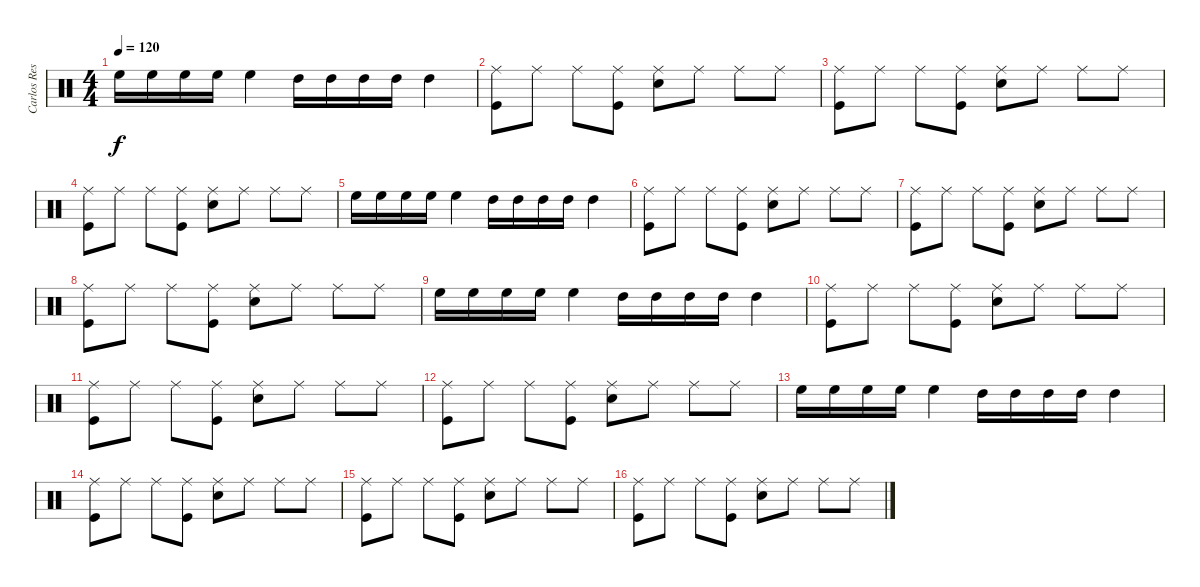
\track ("Carlos Restrepo" "Carlos Res") {instrument percussion}
\staff {score}
\articulation defaults
\ts (4 4)
\tempo 120
\clef neutral
\ks c "High Floor Tom (hit)".16{dy f} "High Floor Tom (hit)".16 "High Floor Tom (hit)".16 "High Floor Tom (hit)".16 "High Floor Tom (hit)".4 "High Tom (hit)".16 "High Tom (hit)".16 "High Tom (hit)".16 "High Tom (hit)".16 "High Tom (hit)".4
|
("Ride (middle)" "Kick (hit)").8 "Ride (middle)".8 "Ride (middle)".8 ("Ride (middle)" "Kick (hit)").8 ("Ride (middle)" "Snare (hit) 2").8 "Ride (middle)".8 "Ride (middle)".8 "Ride (middle)".8 |
("Ride (middle)" "Kick (hit)").8 "Ride (middle)".8 "Ride (middle)".8 ("Ride (middle)" "Kick (hit)").8 ("Ride (middle)" "Snare (hit) 2").8 "Ride (middle)".8 "Ride (middle)".8 "Ride (middle)".8 |
("Ride (middle)" "Kick (hit)").8 "Ride (middle)".8 "Ride (middle)".8 ("Ride (middle)" "Kick (hit)").8 ("Ride (middle)" "Snare (hit) 2").8 "Ride (middle)".8 "Ride (middle)".8 "Ride (middle)".8 |
"High Floor Tom (hit)".16 "High Floor Tom (hit)".16 "High Floor Tom (hit)".16 "High Floor Tom (hit)".16 "High Floor Tom (hit)".4 "High Tom (hit)".16 "High Tom (hit)".16 "High Tom (hit)".16 "High Tom (hit)".16 "High Tom (hit)".4 |
("Ride (middle)" "Kick (hit)").8 "Ride (middle)".8 "Ride (middle)".8 ("Ride (middle)" "Kick (hit)").8 ("Ride (middle)" "Snare (hit) 2").8 "Ride (middle)".8 "Ride (middle)".8 "Ride (middle)".8 |
("Ride (middle)" "Kick (hit)").8 "Ride (middle)".8 "Ride (middle)".8 ("Ride (middle)" "Kick (hit)").8 ("Ride (middle)" "Snare (hit) 2").8 "Ride (middle)".8 "Ride (middle)".8 "Ride (middle)".8 |
("Ride (middle)" "Kick (hit)").8 "Ride (middle)".8 "Ride (middle)".8 ("Ride (middle)" "Kick (hit)").8 ("Ride (middle)" "Snare (hit) 2").8 "Ride (middle)".8 "Ride (middle)".8 "Ride (middle)".8 |
"High Floor Tom (hit)".16 "High Floor Tom (hit)".16 "High Floor Tom (hit)".16 "High Floor Tom (hit)".16 "High Floor Tom (hit)".4 "High Tom (hit)".16 "High Tom (hit)".16 "High Tom (hit)".16 "High Tom (hit)".16 "High Tom (hit)".4 |
("Ride (middle)" "Kick (hit)").8 "Ride (middle)".8 "Ride (middle)".8 ("Ride (middle)" "Kick (hit)").8 ("Ride (middle)" "Snare (hit) 2").8 "Ride (middle)".8 "Ride (middle)".8 "Ride (middle)".8 |
("Ride (middle)" "Kick (hit)").8 "Ride (middle)".8 "Ride (middle)".8 ("Ride (middle)" "Kick (hit)").8 ("Ride (middle)" "Snare (hit) 2").8 "Ride (middle)".8 "Ride (middle)".8 "Ride (middle)".8 |
("Ride (middle)" "Kick (hit)").8 "Ride (middle)".8 "Ride (middle)".8 ("Ride (middle)" "Kick (hit)").8 ("Ride (middle)" "Snare (hit) 2").8 "Ride (middle)".8 "Ride (middle)".8 "Ride (middle)".8 |
"High Floor Tom (hit)".16 "High Floor Tom (hit)".16 "High Floor Tom (hit)".16 "High Floor Tom (hit)".16 "High Floor Tom (hit)".4 "High Tom (hit)".16 "High Tom (hit)".16 "High Tom (hit)".16 "High Tom (hit)".16 "High Tom (hit)".4 |
("Ride (middle)" "Kick (hit)").8 "Ride (middle)".8 "Ride (middle)".8 ("Ride (middle)" "Kick (hit)").8 ("Ride (middle)" "Snare (hit) 2").8 "Ride (middle)".8 "Ride (middle)".8 "Ride (middle)".8 |
("Ride (middle)" "Kick (hit)").8 "Ride (middle)".8 "Ride (middle)".8 ("Ride (middle)" "Kick (hit)").8 ("Ride (middle)" "Snare (hit) 2").8 "Ride (middle)".8 "Ride (middle)".8 "Ride (middle)".8 |
("Ride (middle)" "Kick (hit)").8 "Ride (middle)".8 "Ride (middle)".8 ("Ride (middle)" "Kick (hit)").8 ("Ride (middle)" "Snare (hit) 2").8 "Ride (middle)".8 "Ride (middle)".8 "Ride (middle)".8
